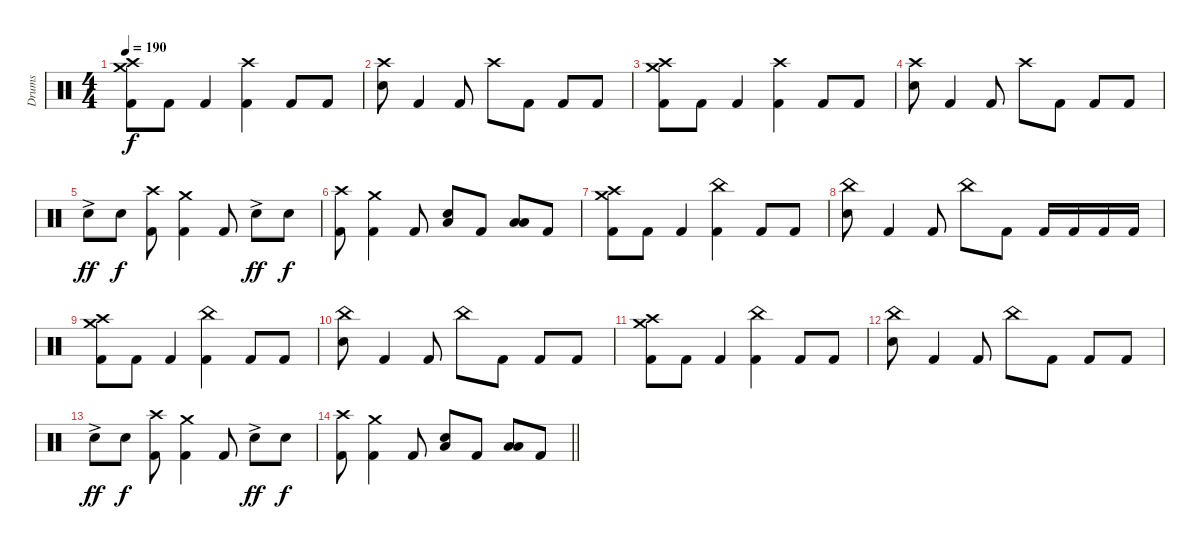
\track ("Drums" "Drums") {instrument percussion}
\staff {score}
\articulation defaults
\ts (4 4)
\tempo 190
\clef neutral
\ks c
("Crash medium (hit)" "Crash high (hit)" "Kick (hit) 2").8{dy f} "Kick (hit) 2".8 "Kick (hit) 2".4 ("Crash high (hit)" "Kick (hit) 2").4 "Kick (hit) 2".8 "Kick (hit) 2".8 |
("Crash high (hit)" "Electric Snare (hit)").8 "Kick (hit) 2".4 "Kick (hit) 2".8 "Crash high (hit)".8 "Kick (hit) 2".8 "Kick (hit) 2".8 "Kick (hit) 2".8 |
("Crash medium (hit)" "Crash high (hit)" "Kick (hit) 2").8 "Kick (hit) 2".8 "Kick (hit) 2".4 ("Crash high (hit)" "Kick (hit) 2").4 "Kick (hit) 2".8 "Kick (hit) 2".8 |
("Crash high (hit)" "Electric Snare (hit)").8 "Kick (hit) 2".4 "Kick (hit) 2".8 "Crash high (hit)".8 "Kick (hit) 2".8 "Kick (hit) 2".8 "Kick (hit) 2".8 |
"Electric Snare (hit)"{ac}.8{dy ff} "Electric Snare (hit)".8{dy f} ("Crash high (hit)" "Kick (hit) 2").8 ("Crash medium (hit)" "Kick (hit) 2").4 "Kick (hit) 2".8 "Electric Snare (hit)"{ac}.8{dy ff} "Electric Snare (hit)".8{dy f} |
("Crash high (hit)" "Kick (hit) 2").8 ("Crash medium (hit)" "Kick (hit) 2").4 "Kick (hit) 2".8 ("Electric Snare (hit)" "Low Floor Tom (hit)").8{bu 120} "Kick (hit) 2".8 ("Low Tom (hit)" "Low Floor Tom (hit)").8{bu 120} "Kick (hit) 2".8 |
("Crash medium (hit)" "Crash high (hit)" "Kick (hit) 2").8 "Kick (hit) 2".8 "Kick (hit) 2".4 ("China (hit)" "Kick (hit) 2").4 "Kick (hit) 2".8 "Kick (hit) 2".8 |
("China (hit)" "Electric Snare (hit)").8 "Kick (hit) 2".4 "Kick (hit) 2".8 "China (hit)".8 "Kick (hit) 2".8 "Kick (hit) 2".16 "Kick (hit) 2".16 "Kick (hit) 2".16 "Kick (hit) 2".16 |
("Crash medium (hit)" "Crash high (hit)" "Kick (hit) 2").8 "Kick (hit) 2".8 "Kick (hit) 2".4 ("China (hit)" "Kick (hit) 2").4 "Kick (hit) 2".8 "Kick (hit) 2".8 |
("China (hit)" "Electric Snare (hit)").8 "Kick (hit) 2".4 "Kick (hit) 2".8 "China (hit)".8 "Kick (hit) 2".8 "Kick (hit) 2".8 "Kick (hit) 2".8 |
("Crash medium (hit)" "Crash high (hit)" "Kick (hit) 2").8 "Kick (hit) 2".8 "Kick (hit) 2".4 ("China (hit)" "Kick (hit) 2").4 "Kick (hit) 2".8 "Kick (hit) 2".8 |
("China (hit)" "Electric Snare (hit)").8 "Kick (hit) 2".4 "Kick (hit) 2".8 "China (hit)".8 "Kick (hit) 2".8 "Kick (hit) 2".8 "Kick (hit) 2".8 |
"Electric Snare (hit)"{ac}.8{dy ff} "Electric Snare (hit)".8{dy f} ("Crash high (hit)" "Kick (hit) 2").8 ("Crash medium (hit)" "Kick (hit) 2").4 "Kick (hit) 2".8 "Electric Snare (hit)"{ac}.8{dy ff} "Electric Snare (hit)".8{dy f} |
\barLineRight lightlight
("Crash high (hit)" "Kick (hit) 2").8 ("Crash medium (hit)" "Kick (hit) 2").4 "Kick (hit) 2".8 ("Electric Snare (hit)" "Low Floor Tom (hit)").8{bu 120} "Kick (hit) 2".8 ("Low Tom (hit)" "Low Floor Tom (hit)").8{bu 120} "Kick (hit) 2".8
